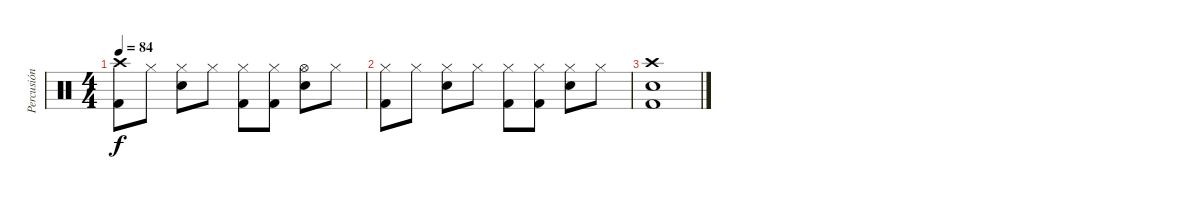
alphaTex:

\track ("Percusión" "Percusión") {instrument percussion}
\staff {score}
\articulation defaults
\ts (4 4)
\tempo 84
\clef neutral
\ks c
("Crash high (hit)" "Kick (hit) 2").8{dy f} "Hi-Hat (closed)".8 ("Hi-Hat (closed)" "Electric Snare (hit)").8 "Hi-Hat (closed)".8 ("Hi-Hat (closed)" "Kick (hit) 2").8 ("Hi-Hat (closed)" "Kick (hit) 2").8 ("Hi-Hat (open)" "Electric Snare (hit)").8 "Hi-Hat (closed)".8 |
("Hi-Hat (closed)" "Kick (hit) 2").8 "Hi-Hat (closed)".8 ("Hi-Hat (closed)" "Electric Snare (hit)").8 "Hi-Hat (closed)".8 ("Hi-Hat (closed)" "Kick (hit) 2").8 ("Hi-Hat (closed)" "Kick (hit) 2").8 ("Hi-Hat (closed)" "Electric Snare (hit)").8 "Hi-Hat (closed)".8 |
("Crash high (hit)" "Kick (hit) 2" "Electric Snare (hit)").1
